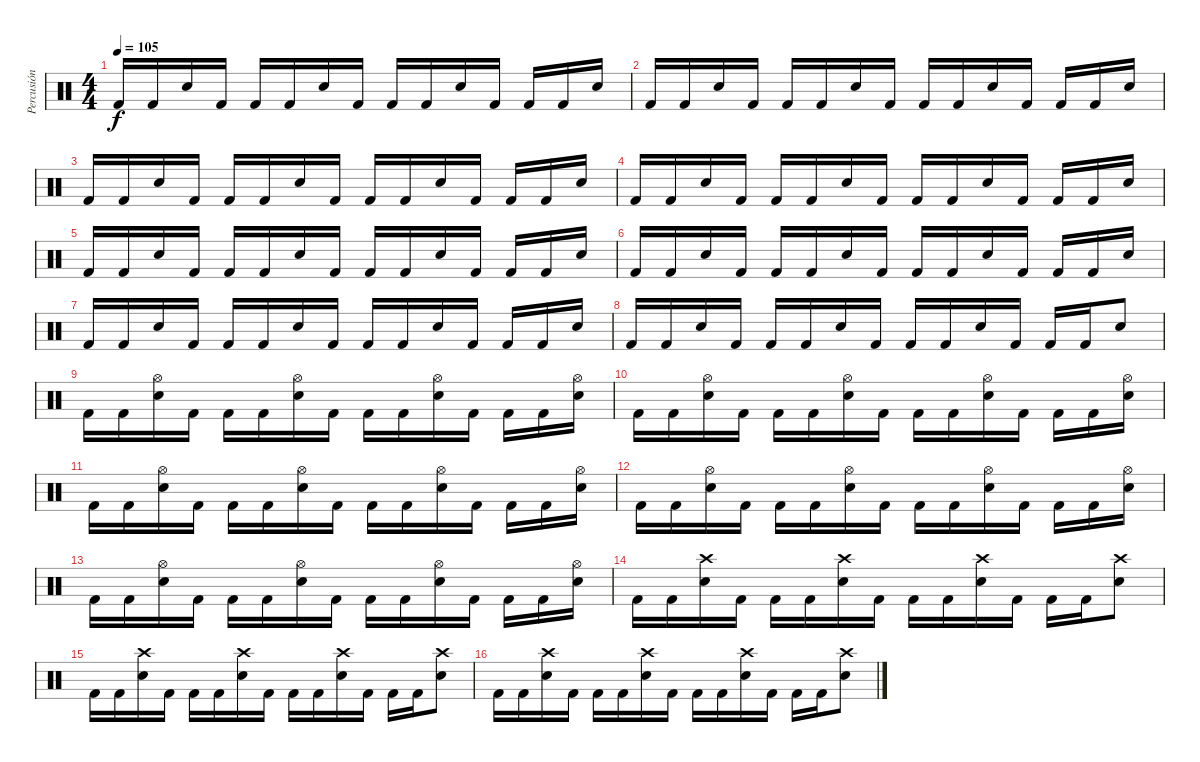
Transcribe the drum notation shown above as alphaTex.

\track ("Percusión" "Percusión") {instrument percussion}
\staff {score}
\articulation defaults
\ts (4 4)
\tempo 105
\clef neutral
\ks c "Kick (hit) 2".16{dy f} "Kick (hit) 2".16 "Electric Snare (hit)".16 "Kick (hit) 2".16 "Kick (hit) 2".16 "Kick (hit) 2".16 "Electric Snare (hit)".16 "Kick (hit) 2".16 "Kick (hit) 2".16 "Kick (hit) 2".16 "Electric Snare (hit)".16 "Kick (hit) 2".16 "Kick (hit) 2".16 "Kick (hit) 2".16 "Electric Snare (hit)".16
|
"Kick (hit) 2".16 "Kick (hit) 2".16 "Electric Snare (hit)".16 "Kick (hit) 2".16 "Kick (hit) 2".16 "Kick (hit) 2".16 "Electric Snare (hit)".16 "Kick (hit) 2".16 "Kick (hit) 2".16 "Kick (hit) 2".16 "Electric Snare (hit)".16 "Kick (hit) 2".16 "Kick (hit) 2".16 "Kick (hit) 2".16 "Electric Snare (hit)".16 |
"Kick (hit) 2".16 "Kick (hit) 2".16 "Electric Snare (hit)".16 "Kick (hit) 2".16 "Kick (hit) 2".16 "Kick (hit) 2".16 "Electric Snare (hit)".16 "Kick (hit) 2".16 "Kick (hit) 2".16 "Kick (hit) 2".16 "Electric Snare (hit)".16 "Kick (hit) 2".16 "Kick (hit) 2".16 "Kick (hit) 2".16 "Electric Snare (hit)".16 |
"Kick (hit) 2".16 "Kick (hit) 2".16 "Electric Snare (hit)".16 "Kick (hit) 2".16 "Kick (hit) 2".16 "Kick (hit) 2".16 "Electric Snare (hit)".16 "Kick (hit) 2".16 "Kick (hit) 2".16 "Kick (hit) 2".16 "Electric Snare (hit)".16 "Kick (hit) 2".16 "Kick (hit) 2".16 "Kick (hit) 2".16 "Electric Snare (hit)".16 |
"Kick (hit) 2".16 "Kick (hit) 2".16 "Electric Snare (hit)".16 "Kick (hit) 2".16 "Kick (hit) 2".16 "Kick (hit) 2".16 "Electric Snare (hit)".16 "Kick (hit) 2".16 "Kick (hit) 2".16 "Kick (hit) 2".16 "Electric Snare (hit)".16 "Kick (hit) 2".16 "Kick (hit) 2".16 "Kick (hit) 2".16 "Electric Snare (hit)".16 |
"Kick (hit) 2".16 "Kick (hit) 2".16 "Electric Snare (hit)".16 "Kick (hit) 2".16 "Kick (hit) 2".16 "Kick (hit) 2".16 "Electric Snare (hit)".16 "Kick (hit) 2".16 "Kick (hit) 2".16 "Kick (hit) 2".16 "Electric Snare (hit)".16 "Kick (hit) 2".16 "Kick (hit) 2".16 "Kick (hit) 2".16 "Electric Snare (hit)".16 |
"Kick (hit) 2".16 "Kick (hit) 2".16 "Electric Snare (hit)".16 "Kick (hit) 2".16 "Kick (hit) 2".16 "Kick (hit) 2".16 "Electric Snare (hit)".16 "Kick (hit) 2".16 "Kick (hit) 2".16 "Kick (hit) 2".16 "Electric Snare (hit)".16 "Kick (hit) 2".16 "Kick (hit) 2".16 "Kick (hit) 2".16 "Electric Snare (hit)".16 |
"Kick (hit) 2".16 "Kick (hit) 2".16 "Electric Snare (hit)".16 "Kick (hit) 2".16 "Kick (hit) 2".16 "Kick (hit) 2".16 "Electric Snare (hit)".16 "Kick (hit) 2".16 "Kick (hit) 2".16 "Kick (hit) 2".16 "Electric Snare (hit)".16 "Kick (hit) 2".16 "Kick (hit) 2".16 "Kick (hit) 2".16 "Electric Snare (hit)".8 |
"Kick (hit) 2".16 "Kick (hit) 2".16 ("Electric Snare (hit)" "Hi-Hat (open)").16 "Kick (hit) 2".16 "Kick (hit) 2".16 "Kick (hit) 2".16 ("Electric Snare (hit)" "Hi-Hat (open)").16 "Kick (hit) 2".16 "Kick (hit) 2".16 "Kick (hit) 2".16 ("Electric Snare (hit)" "Hi-Hat (open)").16 "Kick (hit) 2".16 "Kick (hit) 2".16 "Kick (hit) 2".16 ("Electric Snare (hit)" "Hi-Hat (open)").16 |
"Kick (hit) 2".16 "Kick (hit) 2".16 ("Electric Snare (hit)" "Hi-Hat (open)").16 "Kick (hit) 2".16 "Kick (hit) 2".16 "Kick (hit) 2".16 ("Electric Snare (hit)" "Hi-Hat (open)").16 "Kick (hit) 2".16 "Kick (hit) 2".16 "Kick (hit) 2".16 ("Electric Snare (hit)" "Hi-Hat (open)").16 "Kick (hit) 2".16 "Kick (hit) 2".16 "Kick (hit) 2".16 ("Electric Snare (hit)" "Hi-Hat (open)").16 |
"Kick (hit) 2".16 "Kick (hit) 2".16 ("Electric Snare (hit)" "Hi-Hat (open)").16 "Kick (hit) 2".16 "Kick (hit) 2".16 "Kick (hit) 2".16 ("Electric Snare (hit)" "Hi-Hat (open)").16 "Kick (hit) 2".16 "Kick (hit) 2".16 "Kick (hit) 2".16 ("Electric Snare (hit)" "Hi-Hat (open)").16 "Kick (hit) 2".16 "Kick (hit) 2".16 "Kick (hit) 2".16 ("Electric Snare (hit)" "Hi-Hat (open)").16 |
"Kick (hit) 2".16 "Kick (hit) 2".16 ("Electric Snare (hit)" "Hi-Hat (open)").16 "Kick (hit) 2".16 "Kick (hit) 2".16 "Kick (hit) 2".16 ("Electric Snare (hit)" "Hi-Hat (open)").16 "Kick (hit) 2".16 "Kick (hit) 2".16 "Kick (hit) 2".16 ("Electric Snare (hit)" "Hi-Hat (open)").16 "Kick (hit) 2".16 "Kick (hit) 2".16 "Kick (hit) 2".16 ("Electric Snare (hit)" "Hi-Hat (open)").16 |
"Kick (hit) 2".16 "Kick (hit) 2".16 ("Electric Snare (hit)" "Hi-Hat (open)").16 "Kick (hit) 2".16 "Kick (hit) 2".16 "Kick (hit) 2".16 ("Electric Snare (hit)" "Hi-Hat (open)").16 "Kick (hit) 2".16 "Kick (hit) 2".16 "Kick (hit) 2".16 ("Electric Snare (hit)" "Hi-Hat (open)").16 "Kick (hit) 2".16 "Kick (hit) 2".16 "Kick (hit) 2".16 ("Electric Snare (hit)" "Hi-Hat (open)").16 |
"Kick (hit) 2".16 "Kick (hit) 2".16 ("Electric Snare (hit)" "Crash high (hit)").16 "Kick (hit) 2".16 "Kick (hit) 2".16 "Kick (hit) 2".16 ("Electric Snare (hit)" "Crash high (hit)").16 "Kick (hit) 2".16 "Kick (hit) 2".16 "Kick (hit) 2".16 ("Electric Snare (hit)" "Crash high (hit)").16 "Kick (hit) 2".16 "Kick (hit) 2".16 "Kick (hit) 2".16 ("Electric Snare (hit)" "Crash high (hit)").8 |
"Kick (hit) 2".16 "Kick (hit) 2".16 ("Electric Snare (hit)" "Crash high (hit)").16 "Kick (hit) 2".16 "Kick (hit) 2".16 "Kick (hit) 2".16 ("Electric Snare (hit)" "Crash high (hit)").16 "Kick (hit) 2".16 "Kick (hit) 2".16 "Kick (hit) 2".16 ("Electric Snare (hit)" "Crash high (hit)").16 "Kick (hit) 2".16 "Kick (hit) 2".16 "Kick (hit) 2".16 ("Electric Snare (hit)" "Crash high (hit)").8 |
"Kick (hit) 2".16 "Kick (hit) 2".16 ("Electric Snare (hit)" "Crash high (hit)").16 "Kick (hit) 2".16 "Kick (hit) 2".16 "Kick (hit) 2".16 ("Electric Snare (hit)" "Crash high (hit)").16 "Kick (hit) 2".16 "Kick (hit) 2".16 "Kick (hit) 2".16 ("Electric Snare (hit)" "Crash high (hit)").16 "Kick (hit) 2".16 "Kick (hit) 2".16 "Kick (hit) 2".16 ("Electric Snare (hit)" "Crash high (hit)").8
